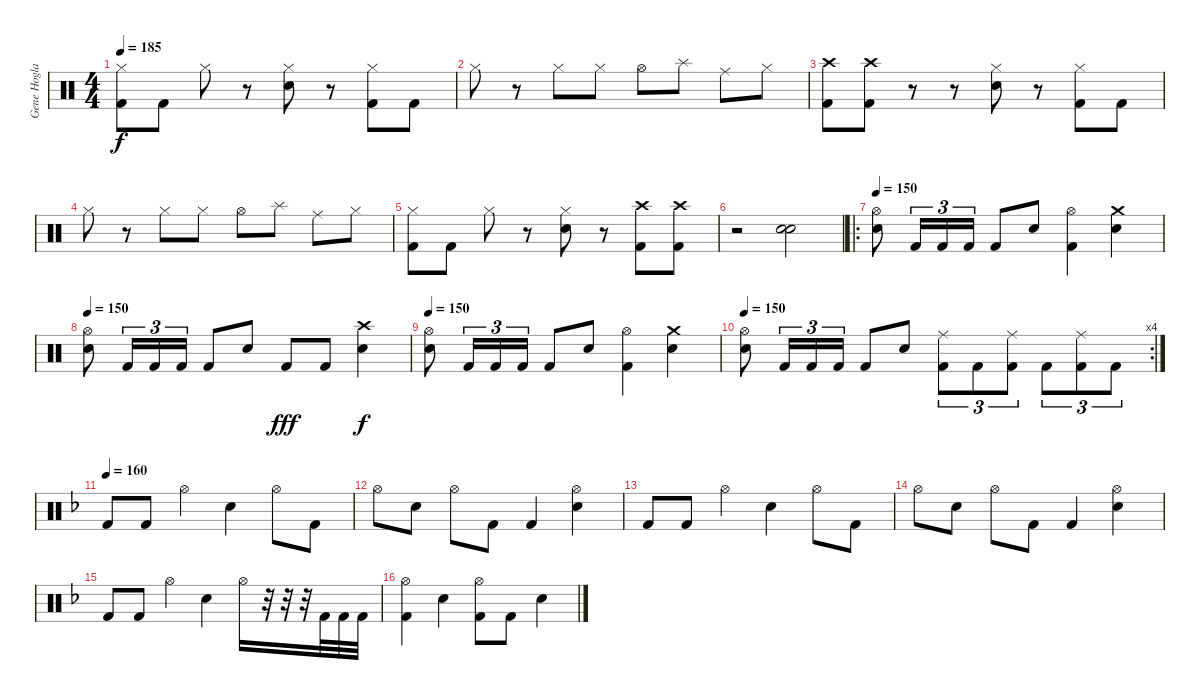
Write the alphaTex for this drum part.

\track ("Gene Hoglan" "Gene Hogla") {instrument percussion}
\staff {score}
\articulation defaults
\ts (4 4)
\tempo 185
\clef neutral
\ks c
("Hi-Hat (closed)" "Kick (hit) 2").8{dy f} "Kick (hit) 2".8 "Hi-Hat (closed)".8 r.8 ("Hi-Hat (closed)" "Snare (hit) 2").8 r.8 ("Hi-Hat (closed)" "Kick (hit) 2").8 "Kick (hit) 2".8 |
"Hi-Hat (closed)".8 r.8 "Hi-Hat (closed)".8 "Hi-Hat (closed)".8 "Hi-Hat (open)".8 "Splash (hit)".8 "Ride (middle)".8 "Hi-Hat (closed)".8 |
("Crash high (hit)" "Kick (hit) 2").8 ("Crash high (hit)" "Kick (hit) 2").8 r.8 r.8 ("Hi-Hat (closed)" "Snare (hit) 2").8 r.8 ("Hi-Hat (closed)" "Kick (hit) 2").8 "Kick (hit) 2".8 |
"Hi-Hat (closed)".8 r.8 "Hi-Hat (closed)".8 "Hi-Hat (closed)".8 "Hi-Hat (open)".8 "Splash (hit)".8 "Ride (middle)".8 "Hi-Hat (closed)".8 |
("Hi-Hat (closed)" "Kick (hit) 2").8 "Kick (hit) 2".8 "Hi-Hat (closed)".8 r.8 ("Hi-Hat (closed)" "Snare (hit) 2").8 r.8 ("Crash high (hit)" "Kick (hit) 2").8 ("Crash high (hit)" "Kick (hit) 2").8 |
r.2 ("Snare (hit) 2" "Snare (hit) 2").2 |
\ro
\tempo 150
("Hi-Hat (open)" "Snare (hit) 2").8 "Kick (hit) 2".16{tu (3 2)} "Kick (hit) 2".16{tu (3 2)} "Kick (hit) 2".16{tu (3 2)} "Kick (hit) 2".8 "Snare (hit) 2".8 ("Hi-Hat (open)" "Kick (hit) 2").4 ("Crash medium (hit)" "Snare (hit) 2").4 |
\tempo 150
("Hi-Hat (open)" "Snare (hit) 2").8 "Kick (hit) 2".16{tu (3 2)} "Kick (hit) 2".16{tu (3 2)} "Kick (hit) 2".16{tu (3 2)} "Kick (hit) 2".8 "Snare (hit) 2".8 "Kick (hit) 2".8{dy fff} "Kick (hit) 2".8 ("Crash high (hit)" "Snare (hit) 2").4{dy f} |
\tempo 150
("Hi-Hat (open)" "Snare (hit) 2").8 "Kick (hit) 2".16{tu (3 2)} "Kick (hit) 2".16{tu (3 2)} "Kick (hit) 2".16{tu (3 2)} "Kick (hit) 2".8 "Snare (hit) 2".8 ("Hi-Hat (open)" "Kick (hit) 2").4 ("Crash medium (hit)" "Snare (hit) 2").4 |
\rc 4
\tempo 150
("Hi-Hat (open)" "Snare (hit) 2").8 "Kick (hit) 2".16{tu (3 2)} "Kick (hit) 2".16{tu (3 2)} "Kick (hit) 2".16{tu (3 2)} "Kick (hit) 2".8 "Snare (hit) 2".8 ("Ride (middle)" "Kick (hit) 2").8{tu (3 2)} "Kick (hit) 2".8{tu (3 2)} ("Ride (middle)" "Kick (hit) 2").8{tu (3 2)} "Kick (hit) 2".8{tu (3 2)} ("Ride (middle)" "Kick (hit) 2").8{tu (3 2)} "Kick (hit) 2".8{tu (3 2)} |
\tempo 160
\ks f "Kick (hit) 2".8 "Kick (hit) 2".8 "Hi-Hat (open)".4 "Snare (hit) 2".4 "Hi-Hat (open)".8 "Kick (hit) 2".8
|
"Hi-Hat (open)".8 "Snare (hit) 2".8 "Hi-Hat (open)".8 "Kick (hit) 2".8 "Kick (hit) 2".4 ("Hi-Hat (open)" "Snare (hit) 2").4 |
"Kick (hit) 2".8 "Kick (hit) 2".8 "Hi-Hat (open)".4 "Snare (hit) 2".4 "Hi-Hat (open)".8 "Kick (hit) 2".8 |
"Hi-Hat (open)".8 "Snare (hit) 2".8 "Hi-Hat (open)".8 "Kick (hit) 2".8 "Kick (hit) 2".4 ("Hi-Hat (open)" "Snare (hit) 2").4 |
"Kick (hit) 2".8 "Kick (hit) 2".8 "Hi-Hat (open)".4 "Snare (hit) 2".4 "Hi-Hat (open)".16 r.32 r.32 r.32 "Kick (hit) 2".32 "Kick (hit) 2".32 "Kick (hit) 2".32 |
("Hi-Hat (open)" "Kick (hit) 2").4 "Snare (hit) 2".4 ("Hi-Hat (open)" "Kick (hit) 2").8 "Kick (hit) 2".8 "Snare (hit) 2".4
